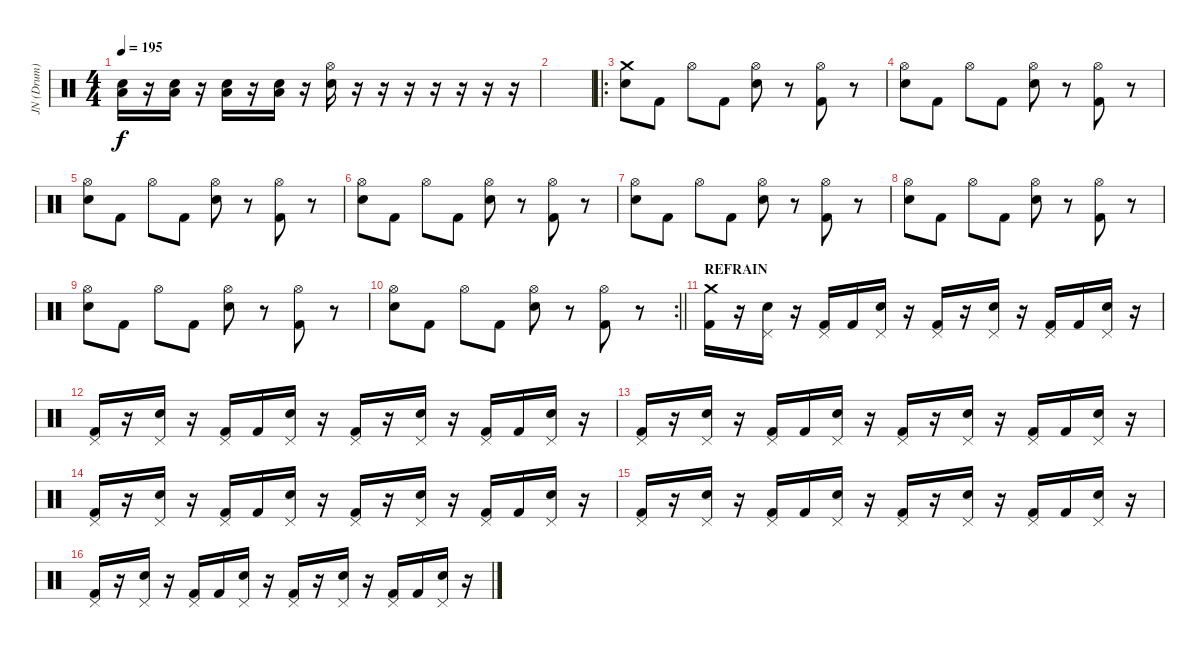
\track ("JN (Drum)" "JN (Drum)") {instrument percussion}
\staff {score}
\articulation defaults
\ts (4 4)
\tempo 195
\clef neutral
\ks c
("Low Tom (hit)" "Electric Snare (hit)").16{dy f} r.16 ("Low Tom (hit)" "Electric Snare (hit)").16 r.16 ("Low Tom (hit)" "Electric Snare (hit)").16 r.16 ("Low Tom (hit)" "Electric Snare (hit)").16 r.16 ("Hi-Hat (open)" "Electric Snare (hit)").16 r.16 r.16 r.16 r.16 r.16 r.16 r.16 |
|
\ro
("Crash medium (hit)" "Electric Snare (hit)").8 "Kick (hit) 2".8 "Hi-Hat (open)".8 "Kick (hit) 2".8 ("Hi-Hat (open)" "Electric Snare (hit)").8 r.8 ("Hi-Hat (open)" "Kick (hit) 2").8 r.8 |
("Hi-Hat (open)" "Electric Snare (hit)").8 "Kick (hit) 2".8 "Hi-Hat (open)".8 "Kick (hit) 2".8 ("Hi-Hat (open)" "Electric Snare (hit)").8 r.8 ("Hi-Hat (open)" "Kick (hit) 2").8 r.8 |
("Hi-Hat (open)" "Electric Snare (hit)").8 "Kick (hit) 2".8 "Hi-Hat (open)".8 "Kick (hit) 2".8 ("Hi-Hat (open)" "Electric Snare (hit)").8 r.8 ("Hi-Hat (open)" "Kick (hit) 2").8 r.8 |
("Hi-Hat (open)" "Electric Snare (hit)").8 "Kick (hit) 2".8 "Hi-Hat (open)".8 "Kick (hit) 2".8 ("Hi-Hat (open)" "Electric Snare (hit)").8 r.8 ("Hi-Hat (open)" "Kick (hit) 2").8 r.8 |
("Hi-Hat (open)" "Electric Snare (hit)").8 "Kick (hit) 2".8 "Hi-Hat (open)".8 "Kick (hit) 2".8 ("Hi-Hat (open)" "Electric Snare (hit)").8 r.8 ("Hi-Hat (open)" "Kick (hit) 2").8 r.8 |
("Hi-Hat (open)" "Electric Snare (hit)").8 "Kick (hit) 2".8 "Hi-Hat (open)".8 "Kick (hit) 2".8 ("Hi-Hat (open)" "Electric Snare (hit)").8 r.8 ("Hi-Hat (open)" "Kick (hit) 2").8 r.8 |
("Hi-Hat (open)" "Electric Snare (hit)").8 "Kick (hit) 2".8 "Hi-Hat (open)".8 "Kick (hit) 2".8 ("Hi-Hat (open)" "Electric Snare (hit)").8 r.8 ("Hi-Hat (open)" "Kick (hit) 2").8 r.8 |
\rc 2
\barLineRight lightlight
("Hi-Hat (open)" "Electric Snare (hit)").8 "Kick (hit) 2".8 "Hi-Hat (open)".8 "Kick (hit) 2".8 ("Hi-Hat (open)" "Electric Snare (hit)").8 r.8 ("Hi-Hat (open)" "Kick (hit) 2").8 r.8 |
\section ("" "REFRAIN")
("Crash medium (hit)" "Kick (hit) 2").16 r.16 ("Pedal Hi-Hat (hit)" "Electric Snare (hit)").16 r.16 ("Pedal Hi-Hat (hit)" "Kick (hit) 2").16 "Kick (hit) 2".16 ("Pedal Hi-Hat (hit)" "Electric Snare (hit)").16 r.16 ("Pedal Hi-Hat (hit)" "Kick (hit) 2").16 r.16 ("Pedal Hi-Hat (hit)" "Electric Snare (hit)").16 r.16 ("Pedal Hi-Hat (hit)" "Kick (hit) 2").16 "Kick (hit) 2".16 ("Pedal Hi-Hat (hit)" "Electric Snare (hit)").16 r.16 |
("Pedal Hi-Hat (hit)" "Kick (hit) 2").16 r.16 ("Pedal Hi-Hat (hit)" "Electric Snare (hit)").16 r.16 ("Pedal Hi-Hat (hit)" "Kick (hit) 2").16 "Kick (hit) 2".16 ("Pedal Hi-Hat (hit)" "Electric Snare (hit)").16 r.16 ("Pedal Hi-Hat (hit)" "Kick (hit) 2").16 r.16 ("Pedal Hi-Hat (hit)" "Electric Snare (hit)").16 r.16 ("Pedal Hi-Hat (hit)" "Kick (hit) 2").16 "Kick (hit) 2".16 ("Pedal Hi-Hat (hit)" "Electric Snare (hit)").16 r.16 |
("Pedal Hi-Hat (hit)" "Kick (hit) 2").16 r.16 ("Pedal Hi-Hat (hit)" "Electric Snare (hit)").16 r.16 ("Pedal Hi-Hat (hit)" "Kick (hit) 2").16 "Kick (hit) 2".16 ("Pedal Hi-Hat (hit)" "Electric Snare (hit)").16 r.16 ("Pedal Hi-Hat (hit)" "Kick (hit) 2").16 r.16 ("Pedal Hi-Hat (hit)" "Electric Snare (hit)").16 r.16 ("Pedal Hi-Hat (hit)" "Kick (hit) 2").16 "Kick (hit) 2".16 ("Pedal Hi-Hat (hit)" "Electric Snare (hit)").16 r.16 |
("Pedal Hi-Hat (hit)" "Kick (hit) 2").16 r.16 ("Pedal Hi-Hat (hit)" "Electric Snare (hit)").16 r.16 ("Pedal Hi-Hat (hit)" "Kick (hit) 2").16 "Kick (hit) 2".16 ("Pedal Hi-Hat (hit)" "Electric Snare (hit)").16 r.16 ("Pedal Hi-Hat (hit)" "Kick (hit) 2").16 r.16 ("Pedal Hi-Hat (hit)" "Electric Snare (hit)").16 r.16 ("Pedal Hi-Hat (hit)" "Kick (hit) 2").16 "Kick (hit) 2".16 ("Pedal Hi-Hat (hit)" "Electric Snare (hit)").16 r.16 |
("Pedal Hi-Hat (hit)" "Kick (hit) 2").16 r.16 ("Pedal Hi-Hat (hit)" "Electric Snare (hit)").16 r.16 ("Pedal Hi-Hat (hit)" "Kick (hit) 2").16 "Kick (hit) 2".16 ("Pedal Hi-Hat (hit)" "Electric Snare (hit)").16 r.16 ("Pedal Hi-Hat (hit)" "Kick (hit) 2").16 r.16 ("Pedal Hi-Hat (hit)" "Electric Snare (hit)").16 r.16 ("Pedal Hi-Hat (hit)" "Kick (hit) 2").16 "Kick (hit) 2".16 ("Pedal Hi-Hat (hit)" "Electric Snare (hit)").16 r.16 |
("Pedal Hi-Hat (hit)" "Kick (hit) 2").16 r.16 ("Pedal Hi-Hat (hit)" "Electric Snare (hit)").16 r.16 ("Pedal Hi-Hat (hit)" "Kick (hit) 2").16 "Kick (hit) 2".16 ("Pedal Hi-Hat (hit)" "Electric Snare (hit)").16 r.16 ("Pedal Hi-Hat (hit)" "Kick (hit) 2").16 r.16 ("Pedal Hi-Hat (hit)" "Electric Snare (hit)").16 r.16 ("Pedal Hi-Hat (hit)" "Kick (hit) 2").16 "Kick (hit) 2".16 ("Pedal Hi-Hat (hit)" "Electric Snare (hit)").16 r.16
